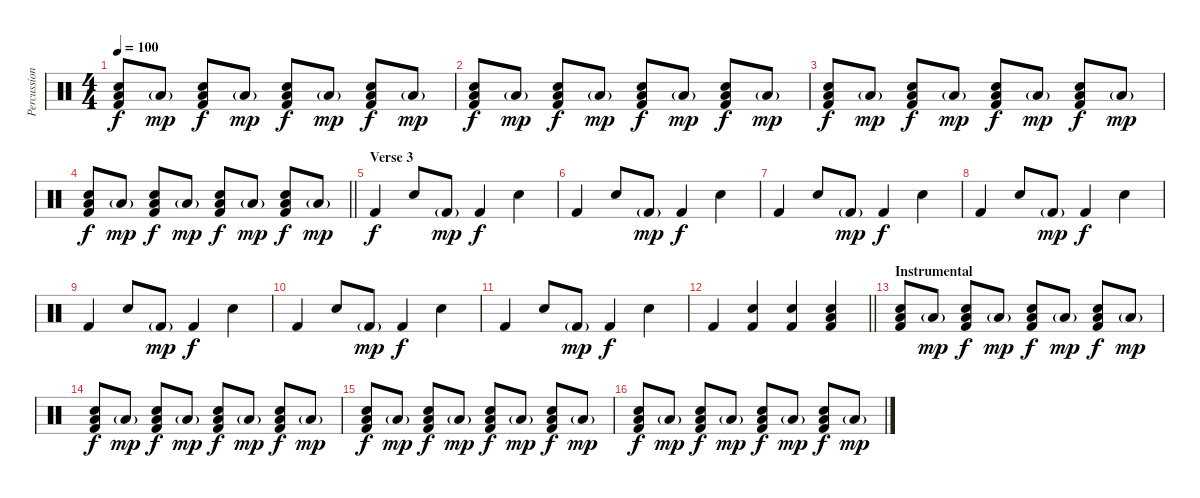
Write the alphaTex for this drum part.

\track ("Percussion" "Percussion") {instrument percussion}
\staff {score}
\articulation defaults
\ts (4 4)
\tempo 100
\clef neutral
\ks c
("Hand Clap (hit)" "Low Tom (hit)" "Kick (hit) 2").8{dy f} "Low Tom (hit)"{g}.8{dy mp} ("Hand Clap (hit)" "Low Tom (hit)" "Kick (hit) 2").8{dy f} "Low Tom (hit)"{g}.8{dy mp} ("Hand Clap (hit)" "Low Tom (hit)" "Kick (hit) 2").8{dy f} "Low Tom (hit)"{g}.8{dy mp} ("Hand Clap (hit)" "Low Tom (hit)" "Kick (hit) 2").8{dy f} "Low Tom (hit)"{g}.8{dy mp} |
("Hand Clap (hit)" "Low Tom (hit)" "Kick (hit) 2").8{dy f} "Low Tom (hit)"{g}.8{dy mp} ("Hand Clap (hit)" "Low Tom (hit)" "Kick (hit) 2").8{dy f} "Low Tom (hit)"{g}.8{dy mp} ("Hand Clap (hit)" "Low Tom (hit)" "Kick (hit) 2").8{dy f} "Low Tom (hit)"{g}.8{dy mp} ("Hand Clap (hit)" "Low Tom (hit)" "Kick (hit) 2").8{dy f} "Low Tom (hit)"{g}.8{dy mp} |
("Hand Clap (hit)" "Low Tom (hit)" "Kick (hit) 2").8{dy f} "Low Tom (hit)"{g}.8{dy mp} ("Hand Clap (hit)" "Low Tom (hit)" "Kick (hit) 2").8{dy f} "Low Tom (hit)"{g}.8{dy mp} ("Hand Clap (hit)" "Low Tom (hit)" "Kick (hit) 2").8{dy f} "Low Tom (hit)"{g}.8{dy mp} ("Hand Clap (hit)" "Low Tom (hit)" "Kick (hit) 2").8{dy f} "Low Tom (hit)"{g}.8{dy mp} |
\barLineRight lightlight
("Hand Clap (hit)" "Low Tom (hit)" "Kick (hit) 2").8{dy f} "Low Tom (hit)"{g}.8{dy mp} ("Hand Clap (hit)" "Low Tom (hit)" "Kick (hit) 2").8{dy f} "Low Tom (hit)"{g}.8{dy mp} ("Hand Clap (hit)" "Low Tom (hit)" "Kick (hit) 2").8{dy f} "Low Tom (hit)"{g}.8{dy mp} ("Hand Clap (hit)" "Low Tom (hit)" "Kick (hit) 2").8{dy f} "Low Tom (hit)"{g}.8{dy mp} |
\section ("" "Verse 3")
"Kick (hit) 2".4{dy f} "Snare (hit) 2".8 "Kick (hit) 2"{g}.8{dy mp} "Kick (hit) 2".4{dy f} "Snare (hit) 2".4 |
"Kick (hit) 2".4 "Snare (hit) 2".8 "Kick (hit) 2"{g}.8{dy mp} "Kick (hit) 2".4{dy f} "Snare (hit) 2".4 |
"Kick (hit) 2".4 "Snare (hit) 2".8 "Kick (hit) 2"{g}.8{dy mp} "Kick (hit) 2".4{dy f} "Snare (hit) 2".4 |
"Kick (hit) 2".4 "Snare (hit) 2".8 "Kick (hit) 2"{g}.8{dy mp} "Kick (hit) 2".4{dy f} "Snare (hit) 2".4 |
"Kick (hit) 2".4 "Snare (hit) 2".8 "Kick (hit) 2"{g}.8{dy mp} "Kick (hit) 2".4{dy f} "Snare (hit) 2".4 |
"Kick (hit) 2".4 "Snare (hit) 2".8 "Kick (hit) 2"{g}.8{dy mp} "Kick (hit) 2".4{dy f} "Snare (hit) 2".4 |
"Kick (hit) 2".4 "Snare (hit) 2".8 "Kick (hit) 2"{g}.8{dy mp} "Kick (hit) 2".4{dy f} "Snare (hit) 2".4 |
\barLineRight lightlight "Kick (hit) 2".4
("Hand Clap (hit)" "Kick (hit) 2").4 ("Hand Clap (hit)" "Kick (hit) 2").4 ("Hand Clap (hit)" "Low Tom (hit)" "Kick (hit) 2").4 |
\section ("" "Instrumental")
("Hand Clap (hit)" "Low Tom (hit)" "Kick (hit) 2").8 "Low Tom (hit)"{g}.8{dy mp} ("Hand Clap (hit)" "Low Tom (hit)" "Kick (hit) 2").8{dy f} "Low Tom (hit)"{g}.8{dy mp} ("Hand Clap (hit)" "Low Tom (hit)" "Kick (hit) 2").8{dy f} "Low Tom (hit)"{g}.8{dy mp} ("Hand Clap (hit)" "Low Tom (hit)" "Kick (hit) 2").8{dy f} "Low Tom (hit)"{g}.8{dy mp} |
("Hand Clap (hit)" "Low Tom (hit)" "Kick (hit) 2").8{dy f} "Low Tom (hit)"{g}.8{dy mp} ("Hand Clap (hit)" "Low Tom (hit)" "Kick (hit) 2").8{dy f} "Low Tom (hit)"{g}.8{dy mp} ("Hand Clap (hit)" "Low Tom (hit)" "Kick (hit) 2").8{dy f} "Low Tom (hit)"{g}.8{dy mp} ("Hand Clap (hit)" "Low Tom (hit)" "Kick (hit) 2").8{dy f} "Low Tom (hit)"{g}.8{dy mp} |
("Hand Clap (hit)" "Low Tom (hit)" "Kick (hit) 2").8{dy f} "Low Tom (hit)"{g}.8{dy mp} ("Hand Clap (hit)" "Low Tom (hit)" "Kick (hit) 2").8{dy f} "Low Tom (hit)"{g}.8{dy mp} ("Hand Clap (hit)" "Low Tom (hit)" "Kick (hit) 2").8{dy f} "Low Tom (hit)"{g}.8{dy mp} ("Hand Clap (hit)" "Low Tom (hit)" "Kick (hit) 2").8{dy f} "Low Tom (hit)"{g}.8{dy mp} |
("Hand Clap (hit)" "Low Tom (hit)" "Kick (hit) 2").8{dy f} "Low Tom (hit)"{g}.8{dy mp} ("Hand Clap (hit)" "Low Tom (hit)" "Kick (hit) 2").8{dy f} "Low Tom (hit)"{g}.8{dy mp} ("Hand Clap (hit)" "Low Tom (hit)" "Kick (hit) 2").8{dy f} "Low Tom (hit)"{g}.8{dy mp} ("Hand Clap (hit)" "Low Tom (hit)" "Kick (hit) 2").8{dy f} "Low Tom (hit)"{g}.8{dy mp}
